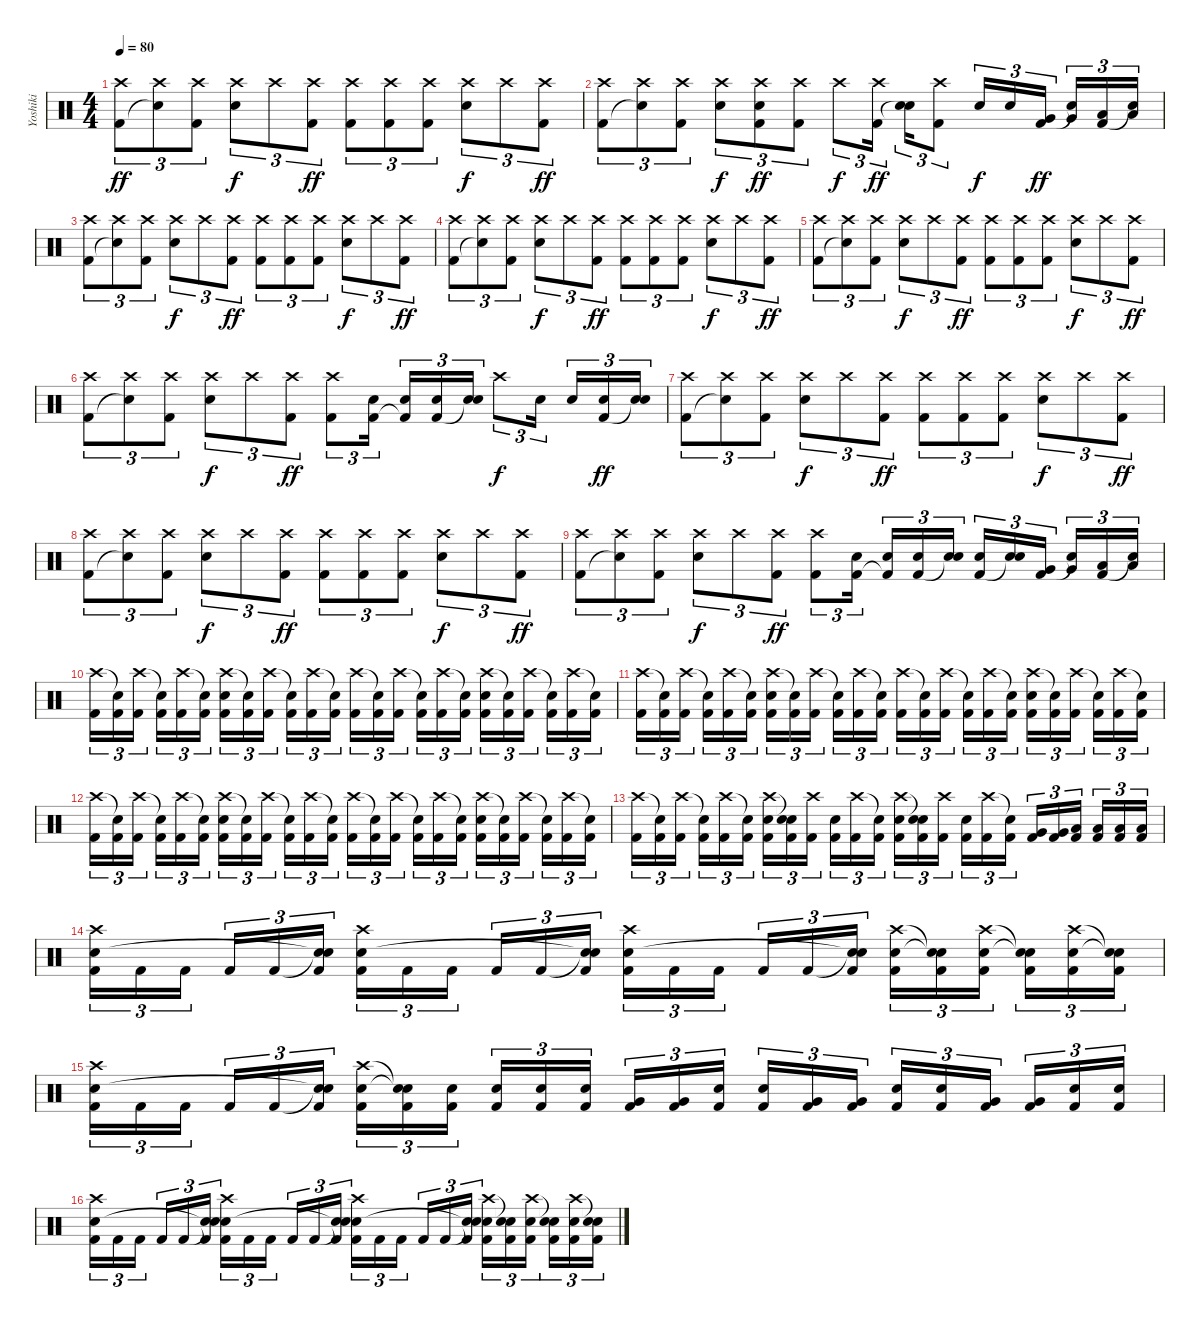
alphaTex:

\track ("Yoshiki" "Yoshiki") {instrument percussion}
\staff {score}
\articulation defaults
\ts (4 4)
\tempo 80
\clef neutral
\ks c
("Crash high (hit)" "Kick (hit) 2").8{tu (3 2) dy ff} ("Crash high (hit)" "Snare (hit)"{t}).8{tu (3 2)} ("Crash high (hit)" "Kick (hit) 2").8{tu (3 2)} ("Crash high (hit)" "Snare (hit) 2").8{tu (3 2) dy f} "Crash high (hit)".8{tu (3 2)} ("Crash high (hit)" "Kick (hit) 2").8{tu (3 2) dy ff} ("Crash high (hit)" "Kick (hit) 2").8{tu (3 2)} ("Crash high (hit)" "Kick (hit) 2").8{tu (3 2)} ("Crash high (hit)" "Kick (hit) 2").8{tu (3 2)} ("Crash high (hit)" "Snare (hit) 2").8{tu (3 2) dy f} "Crash high (hit)".8{tu (3 2)} ("Crash high (hit)" "Kick (hit) 2").8{tu (3 2) dy ff} |
("Crash high (hit)" "Kick (hit) 2").8{tu (3 2)} ("Crash high (hit)" "Snare (hit)"{t}).8{tu (3 2)} ("Crash high (hit)" "Kick (hit) 2").8{tu (3 2)} ("Crash high (hit)" "Snare (hit) 2").8{tu (3 2) dy f} ("Crash high (hit)" "Snare (hit) 2" "Kick (hit) 2").8{tu (3 2) dy ff} ("Crash high (hit)" "Kick (hit) 2").8{tu (3 2)} "Crash high (hit)".8{tu (3 2) dy f} ("Crash high (hit)" "Kick (hit) 2").16{tu (3 2) dy ff} ("Snare (hit) 2" "Snare (hit)"{t}).16{tu (3 2)} ("Crash high (hit)" "Kick (hit) 2").8{tu (3 2)} "Snare (hit) 2".16{tu (3 2) dy f} "Snare (hit) 2".16{tu (3 2)} ("Very Low Tom (hit)" "Kick (hit) 2").16{tu (3 2) dy ff} ("Very Low Tom (hit)" "Snare (hit)"{t}).16{tu (3 2)} ("Low Floor Tom (hit)" "Kick (hit) 2").16{tu (3 2)} ("Low Floor Tom (hit)" "Snare (hit)"{t}).16{tu (3 2)} |
("Crash high (hit)" "Kick (hit) 2").8{tu (3 2)} ("Crash high (hit)" "Snare (hit)"{t}).8{tu (3 2)} ("Crash high (hit)" "Kick (hit) 2").8{tu (3 2)} ("Crash high (hit)" "Snare (hit) 2").8{tu (3 2) dy f} "Crash high (hit)".8{tu (3 2)} ("Crash high (hit)" "Kick (hit) 2").8{tu (3 2) dy ff} ("Crash high (hit)" "Kick (hit) 2").8{tu (3 2)} ("Crash high (hit)" "Kick (hit) 2").8{tu (3 2)} ("Crash high (hit)" "Kick (hit) 2").8{tu (3 2)} ("Crash high (hit)" "Snare (hit) 2").8{tu (3 2) dy f} "Crash high (hit)".8{tu (3 2)} ("Crash high (hit)" "Kick (hit) 2").8{tu (3 2) dy ff} |
("Crash high (hit)" "Kick (hit) 2").8{tu (3 2)} ("Crash high (hit)" "Snare (hit)"{t}).8{tu (3 2)} ("Crash high (hit)" "Kick (hit) 2").8{tu (3 2)} ("Crash high (hit)" "Snare (hit) 2").8{tu (3 2) dy f} "Crash high (hit)".8{tu (3 2)} ("Crash high (hit)" "Kick (hit) 2").8{tu (3 2) dy ff} ("Crash high (hit)" "Kick (hit) 2").8{tu (3 2)} ("Crash high (hit)" "Kick (hit) 2").8{tu (3 2)} ("Crash high (hit)" "Kick (hit) 2").8{tu (3 2)} ("Crash high (hit)" "Snare (hit) 2").8{tu (3 2) dy f} "Crash high (hit)".8{tu (3 2)} ("Crash high (hit)" "Kick (hit) 2").8{tu (3 2) dy ff} |
("Crash high (hit)" "Kick (hit) 2").8{tu (3 2)} ("Crash high (hit)" "Snare (hit)"{t}).8{tu (3 2)} ("Crash high (hit)" "Kick (hit) 2").8{tu (3 2)} ("Crash high (hit)" "Snare (hit) 2").8{tu (3 2) dy f} "Crash high (hit)".8{tu (3 2)} ("Crash high (hit)" "Kick (hit) 2").8{tu (3 2) dy ff} ("Crash high (hit)" "Kick (hit) 2").8{tu (3 2)} ("Crash high (hit)" "Kick (hit) 2").8{tu (3 2)} ("Crash high (hit)" "Kick (hit) 2").8{tu (3 2)} ("Crash high (hit)" "Snare (hit) 2").8{tu (3 2) dy f} "Crash high (hit)".8{tu (3 2)} ("Crash high (hit)" "Kick (hit) 2").8{tu (3 2) dy ff} |
("Crash high (hit)" "Kick (hit) 2").8{tu (3 2)} ("Crash high (hit)" "Snare (hit)"{t}).8{tu (3 2)} ("Crash high (hit)" "Kick (hit) 2").8{tu (3 2)} ("Crash high (hit)" "Snare (hit) 2").8{tu (3 2) dy f} "Crash high (hit)".8{tu (3 2)} ("Crash high (hit)" "Kick (hit) 2").8{tu (3 2) dy ff} ("Crash high (hit)" "Kick (hit) 2").8{tu (3 2)} ("Snare (hit) 2" "Kick (hit) 2").16{tu (3 2)} ("Snare (hit) 2" "Kick (hit) 2"{t}).16{tu (3 2)} ("Snare (hit) 2" "Kick (hit) 2").16{tu (3 2)} ("Snare (hit) 2" "Snare (hit)"{t}).16{tu (3 2)} "Crash high (hit)".8{tu (3 2) dy f} "Snare (hit) 2".16{tu (3 2)} "Snare (hit) 2".16{tu (3 2)} ("Snare (hit) 2" "Kick (hit) 2").16{tu (3 2) dy ff} ("Snare (hit) 2" "Snare (hit)"{t}).16{tu (3 2)} |
("Crash high (hit)" "Kick (hit) 2").8{tu (3 2)} ("Crash high (hit)" "Snare (hit)"{t}).8{tu (3 2)} ("Crash high (hit)" "Kick (hit) 2").8{tu (3 2)} ("Crash high (hit)" "Snare (hit) 2").8{tu (3 2) dy f} "Crash high (hit)".8{tu (3 2)} ("Crash high (hit)" "Kick (hit) 2").8{tu (3 2) dy ff} ("Crash high (hit)" "Kick (hit) 2").8{tu (3 2)} ("Crash high (hit)" "Kick (hit) 2").8{tu (3 2)} ("Crash high (hit)" "Kick (hit) 2").8{tu (3 2)} ("Crash high (hit)" "Snare (hit) 2").8{tu (3 2) dy f} "Crash high (hit)".8{tu (3 2)} ("Crash high (hit)" "Kick (hit) 2").8{tu (3 2) dy ff} |
("Crash high (hit)" "Kick (hit) 2").8{tu (3 2)} ("Crash high (hit)" "Snare (hit)"{t}).8{tu (3 2)} ("Crash high (hit)" "Kick (hit) 2").8{tu (3 2)} ("Crash high (hit)" "Snare (hit) 2").8{tu (3 2) dy f} "Crash high (hit)".8{tu (3 2)} ("Crash high (hit)" "Kick (hit) 2").8{tu (3 2) dy ff} ("Crash high (hit)" "Kick (hit) 2").8{tu (3 2)} ("Crash high (hit)" "Kick (hit) 2").8{tu (3 2)} ("Crash high (hit)" "Kick (hit) 2").8{tu (3 2)} ("Crash high (hit)" "Snare (hit) 2").8{tu (3 2) dy f} "Crash high (hit)".8{tu (3 2)} ("Crash high (hit)" "Kick (hit) 2").8{tu (3 2) dy ff} |
("Crash high (hit)" "Kick (hit) 2").8{tu (3 2)} ("Crash high (hit)" "Snare (hit)"{t}).8{tu (3 2)} ("Crash high (hit)" "Kick (hit) 2").8{tu (3 2)} ("Crash high (hit)" "Snare (hit) 2").8{tu (3 2) dy f} "Crash high (hit)".8{tu (3 2)} ("Crash high (hit)" "Kick (hit) 2").8{tu (3 2) dy ff} ("Crash high (hit)" "Kick (hit) 2").8{tu (3 2)} ("Snare (hit) 2" "Kick (hit) 2").16{tu (3 2)} ("Snare (hit) 2" "Kick (hit) 2"{t}).16{tu (3 2)} ("Snare (hit) 2" "Kick (hit) 2").16{tu (3 2)} ("Snare (hit) 2" "Snare (hit)"{t}).16{tu (3 2)} ("Snare (hit) 2" "Kick (hit) 2").16{tu (3 2)} ("Snare (hit) 2" "Snare (hit)"{t}).16{tu (3 2)} ("Very Low Tom (hit)" "Kick (hit) 2").16{tu (3 2)} ("Very Low Tom (hit)" "Snare (hit)"{t}).16{tu (3 2)} ("Low Floor Tom (hit)" "Kick (hit) 2").16{tu (3 2)} ("Low Floor Tom (hit)" "Snare (hit)"{t}).16{tu (3 2)} |
("Crash high (hit)" "Kick (hit) 2").16{tu (3 2)} ("Snare (hit)"{t} "Kick (hit) 2").16{tu (3 2)} ("Crash high (hit)" "Kick (hit) 2").16{tu (3 2)} ("Snare (hit)"{t} "Kick (hit) 2").16{tu (3 2)} ("Crash high (hit)" "Kick (hit) 2").16{tu (3 2)} ("Snare (hit)"{t} "Kick (hit) 2").16{tu (3 2)} ("Crash high (hit)" "Snare (hit) 2" "Kick (hit) 2").16{tu (3 2)} ("Snare (hit)"{t} "Kick (hit) 2").16{tu (3 2)} ("Crash high (hit)" "Kick (hit) 2").16{tu (3 2)} ("Snare (hit)"{t} "Kick (hit) 2").16{tu (3 2)} ("Crash high (hit)" "Kick (hit) 2").16{tu (3 2)} ("Snare (hit)"{t} "Kick (hit) 2").16{tu (3 2)} ("Crash high (hit)" "Kick (hit) 2").16{tu (3 2)} ("Snare (hit)"{t} "Kick (hit) 2").16{tu (3 2)} ("Crash high (hit)" "Kick (hit) 2").16{tu (3 2)} ("Snare (hit)"{t} "Kick (hit) 2").16{tu (3 2)} ("Crash high (hit)" "Kick (hit) 2").16{tu (3 2)} ("Snare (hit)"{t} "Kick (hit) 2").16{tu (3 2)} ("Crash high (hit)" "Snare (hit) 2" "Kick (hit) 2").16{tu (3 2)} ("Snare (hit)"{t} "Kick (hit) 2").16{tu (3 2)} ("Crash high (hit)" "Kick (hit) 2").16{tu (3 2)} ("Snare (hit)"{t} "Kick (hit) 2").16{tu (3 2)} ("Crash high (hit)" "Kick (hit) 2").16{tu (3 2)} ("Snare (hit)"{t} "Kick (hit) 2").16{tu (3 2)} |
("Crash high (hit)" "Kick (hit) 2").16{tu (3 2)} ("Snare (hit)"{t} "Kick (hit) 2").16{tu (3 2)} ("Crash high (hit)" "Kick (hit) 2").16{tu (3 2)} ("Snare (hit)"{t} "Kick (hit) 2").16{tu (3 2)} ("Crash high (hit)" "Kick (hit) 2").16{tu (3 2)} ("Snare (hit)"{t} "Kick (hit) 2").16{tu (3 2)} ("Crash high (hit)" "Snare (hit) 2" "Kick (hit) 2").16{tu (3 2)} ("Snare (hit)"{t} "Kick (hit) 2").16{tu (3 2)} ("Crash high (hit)" "Kick (hit) 2").16{tu (3 2)} ("Snare (hit)"{t} "Kick (hit) 2").16{tu (3 2)} ("Crash high (hit)" "Kick (hit) 2").16{tu (3 2)} ("Snare (hit)"{t} "Kick (hit) 2").16{tu (3 2)} ("Crash high (hit)" "Kick (hit) 2").16{tu (3 2)} ("Snare (hit)"{t} "Kick (hit) 2").16{tu (3 2)} ("Crash high (hit)" "Kick (hit) 2").16{tu (3 2)} ("Snare (hit)"{t} "Kick (hit) 2").16{tu (3 2)} ("Crash high (hit)" "Kick (hit) 2").16{tu (3 2)} ("Snare (hit)"{t} "Kick (hit) 2").16{tu (3 2)} ("Crash high (hit)" "Snare (hit) 2" "Kick (hit) 2").16{tu (3 2)} ("Snare (hit)"{t} "Kick (hit) 2").16{tu (3 2)} ("Crash high (hit)" "Kick (hit) 2").16{tu (3 2)} ("Snare (hit)"{t} "Kick (hit) 2").16{tu (3 2)} ("Crash high (hit)" "Kick (hit) 2").16{tu (3 2)} ("Snare (hit)"{t} "Kick (hit) 2").16{tu (3 2)} |
("Crash high (hit)" "Kick (hit) 2").16{tu (3 2)} ("Snare (hit)"{t} "Kick (hit) 2").16{tu (3 2)} ("Crash high (hit)" "Kick (hit) 2").16{tu (3 2)} ("Snare (hit)"{t} "Kick (hit) 2").16{tu (3 2)} ("Crash high (hit)" "Kick (hit) 2").16{tu (3 2)} ("Snare (hit)"{t} "Kick (hit) 2").16{tu (3 2)} ("Crash high (hit)" "Snare (hit) 2" "Kick (hit) 2").16{tu (3 2)} ("Snare (hit)"{t} "Kick (hit) 2").16{tu (3 2)} ("Crash high (hit)" "Kick (hit) 2").16{tu (3 2)} ("Snare (hit)"{t} "Kick (hit) 2").16{tu (3 2)} ("Crash high (hit)" "Kick (hit) 2").16{tu (3 2)} ("Snare (hit)"{t} "Kick (hit) 2").16{tu (3 2)} ("Crash high (hit)" "Kick (hit) 2").16{tu (3 2)} ("Snare (hit)"{t} "Kick (hit) 2").16{tu (3 2)} ("Crash high (hit)" "Kick (hit) 2").16{tu (3 2)} ("Snare (hit)"{t} "Kick (hit) 2").16{tu (3 2)} ("Crash high (hit)" "Kick (hit) 2").16{tu (3 2)} ("Snare (hit)"{t} "Kick (hit) 2").16{tu (3 2)} ("Crash high (hit)" "Snare (hit) 2" "Kick (hit) 2").16{tu (3 2)} ("Snare (hit)"{t} "Kick (hit) 2").16{tu (3 2)} ("Crash high (hit)" "Kick (hit) 2").16{tu (3 2)} ("Snare (hit)"{t} "Kick (hit) 2").16{tu (3 2)} ("Crash high (hit)" "Kick (hit) 2").16{tu (3 2)} ("Snare (hit)"{t} "Kick (hit) 2").16{tu (3 2)} |
("Crash high (hit)" "Kick (hit) 2").16{tu (3 2)} ("Snare (hit)"{t} "Kick (hit) 2").16{tu (3 2)} ("Crash high (hit)" "Kick (hit) 2").16{tu (3 2)} ("Snare (hit)"{t} "Kick (hit) 2").16{tu (3 2)} ("Crash high (hit)" "Kick (hit) 2").16{tu (3 2)} ("Snare (hit)"{t} "Kick (hit) 2").16{tu (3 2)} ("Crash high (hit)" "Snare (hit) 2" "Kick (hit) 2").16{tu (3 2)} ("Snare (hit)"{t} "Snare (hit)"{t} "Kick (hit) 2").16{tu (3 2)} ("Crash high (hit)" "Kick (hit) 2").16{tu (3 2)} ("Snare (hit) 2" "Kick (hit) 2").16{tu (3 2)} ("Crash high (hit)" "Kick (hit) 2").16{tu (3 2)} ("Snare (hit)"{t} "Kick (hit) 2").16{tu (3 2)} ("Crash high (hit)" "Snare (hit) 2" "Kick (hit) 2").16{tu (3 2)} ("Snare (hit)"{t} "Snare (hit)"{t} "Kick (hit) 2").16{tu (3 2)} ("Crash high (hit)" "Kick (hit) 2").16{tu (3 2)} ("Snare (hit) 2" "Kick (hit) 2").16{tu (3 2)} ("Crash high (hit)" "Kick (hit) 2").16{tu (3 2)} ("Snare (hit)"{t} "Kick (hit) 2").16{tu (3 2)} ("Very Low Tom (hit)" "Kick (hit) 2").16{tu (3 2)} ("Very Low Tom (hit)" "Kick (hit) 2").16{tu (3 2)} ("Low Floor Tom (hit)" "Kick (hit) 2").16{tu (3 2)} ("Low Floor Tom (hit)" "Kick (hit) 2").16{tu (3 2)} ("Low Floor Tom (hit)" "Kick (hit) 2").16{tu (3 2)} ("Low Floor Tom (hit)" "Kick (hit) 2").16{tu (3 2)} |
("Crash high (hit)" "Snare (hit) 2" "Kick (hit) 2").16{tu (3 2)} "Kick (hit) 2".16{tu (3 2)} "Kick (hit) 2".16{tu (3 2)} "Kick (hit) 2".16{tu (3 2)} "Kick (hit) 2".16{tu (3 2)} ("Snare (hit)"{t} "Snare (hit)"{t} "Kick (hit) 2").16{tu (3 2)} ("Crash high (hit)" "Snare (hit) 2" "Kick (hit) 2").16{tu (3 2)} "Kick (hit) 2".16{tu (3 2)} "Kick (hit) 2".16{tu (3 2)} "Kick (hit) 2".16{tu (3 2)} "Kick (hit) 2".16{tu (3 2)} ("Snare (hit)"{t} "Snare (hit)"{t} "Kick (hit) 2").16{tu (3 2)} ("Crash high (hit)" "Snare (hit) 2" "Kick (hit) 2").16{tu (3 2)} "Kick (hit) 2".16{tu (3 2)} "Kick (hit) 2".16{tu (3 2)} "Kick (hit) 2".16{tu (3 2)} "Kick (hit) 2".16{tu (3 2)} ("Snare (hit)"{t} "Snare (hit)"{t} "Kick (hit) 2").16{tu (3 2)} ("Crash high (hit)" "Snare (hit) 2" "Kick (hit) 2").16{tu (3 2)} ("Snare (hit)"{t} "Snare (hit)"{t} "Kick (hit) 2").16{tu (3 2)} ("Crash high (hit)" "Snare (hit) 2" "Kick (hit) 2").16{tu (3 2)} ("Snare (hit)"{t} "Snare (hit)"{t} "Kick (hit) 2").16{tu (3 2)} ("Crash high (hit)" "Snare (hit) 2" "Kick (hit) 2").16{tu (3 2)} ("Snare (hit)"{t} "Snare (hit)"{t} "Kick (hit) 2").16{tu (3 2)} |
("Crash high (hit)" "Snare (hit) 2" "Kick (hit) 2").16{tu (3 2)} "Kick (hit) 2".16{tu (3 2)} "Kick (hit) 2".16{tu (3 2)} "Kick (hit) 2".16{tu (3 2)} "Kick (hit) 2".16{tu (3 2)} ("Snare (hit)"{t} "Snare (hit)"{t} "Kick (hit) 2").16{tu (3 2)} ("Crash high (hit)" "Snare (hit) 2" "Kick (hit) 2").16{tu (3 2)} ("Snare (hit)"{t} "Snare (hit)"{t} "Kick (hit) 2").16{tu (3 2)} ("Snare (hit) 2" "Kick (hit) 2").16{tu (3 2)} ("Snare (hit) 2" "Kick (hit) 2").16{tu (3 2)} ("Snare (hit) 2" "Kick (hit) 2").16{tu (3 2)} ("Snare (hit) 2" "Kick (hit) 2").16{tu (3 2)} ("Very Low Tom (hit)" "Kick (hit) 2").16{tu (3 2)} ("Very Low Tom (hit)" "Kick (hit) 2").16{tu (3 2)} ("Snare (hit) 2" "Kick (hit) 2").16{tu (3 2)} ("Snare (hit) 2" "Kick (hit) 2").16{tu (3 2)} ("Very Low Tom (hit)" "Kick (hit) 2").16{tu (3 2)} ("Very Low Tom (hit)" "Kick (hit) 2").16{tu (3 2)} ("Snare (hit) 2" "Kick (hit) 2").16{tu (3 2)} ("Snare (hit) 2" "Kick (hit) 2").16{tu (3 2)} ("Very Low Tom (hit)" "Kick (hit) 2").16{tu (3 2)} ("Very Low Tom (hit)" "Kick (hit) 2").16{tu (3 2)} ("Snare (hit) 2" "Kick (hit) 2").16{tu (3 2)} ("Snare (hit) 2" "Kick (hit) 2").16{tu (3 2)} |
("Crash high (hit)" "Snare (hit) 2" "Kick (hit) 2").16{tu (3 2)} "Kick (hit) 2".16{tu (3 2)} "Kick (hit) 2".16{tu (3 2)} "Kick (hit) 2".16{tu (3 2)} "Kick (hit) 2".16{tu (3 2)} ("Snare (hit)"{t} "Snare (hit)"{t} "Kick (hit) 2").16{tu (3 2)} ("Crash high (hit)" "Snare (hit) 2" "Kick (hit) 2").16{tu (3 2)} "Kick (hit) 2".16{tu (3 2)} "Kick (hit) 2".16{tu (3 2)} "Kick (hit) 2".16{tu (3 2)} "Kick (hit) 2".16{tu (3 2)} ("Snare (hit)"{t} "Snare (hit)"{t} "Kick (hit) 2").16{tu (3 2)} ("Crash high (hit)" "Snare (hit) 2" "Kick (hit) 2").16{tu (3 2)} "Kick (hit) 2".16{tu (3 2)} "Kick (hit) 2".16{tu (3 2)} "Kick (hit) 2".16{tu (3 2)} "Kick (hit) 2".16{tu (3 2)} ("Snare (hit)"{t} "Snare (hit)"{t} "Kick (hit) 2").16{tu (3 2)} ("Crash high (hit)" "Snare (hit) 2" "Kick (hit) 2").16{tu (3 2)} ("Snare (hit)"{t} "Snare (hit)"{t} "Kick (hit) 2").16{tu (3 2)} ("Crash high (hit)" "Snare (hit) 2" "Kick (hit) 2").16{tu (3 2)} ("Snare (hit)"{t} "Snare (hit)"{t} "Kick (hit) 2").16{tu (3 2)} ("Crash high (hit)" "Snare (hit) 2" "Kick (hit) 2").16{tu (3 2)} ("Snare (hit)"{t} "Snare (hit)"{t} "Kick (hit) 2").16{tu (3 2)}
